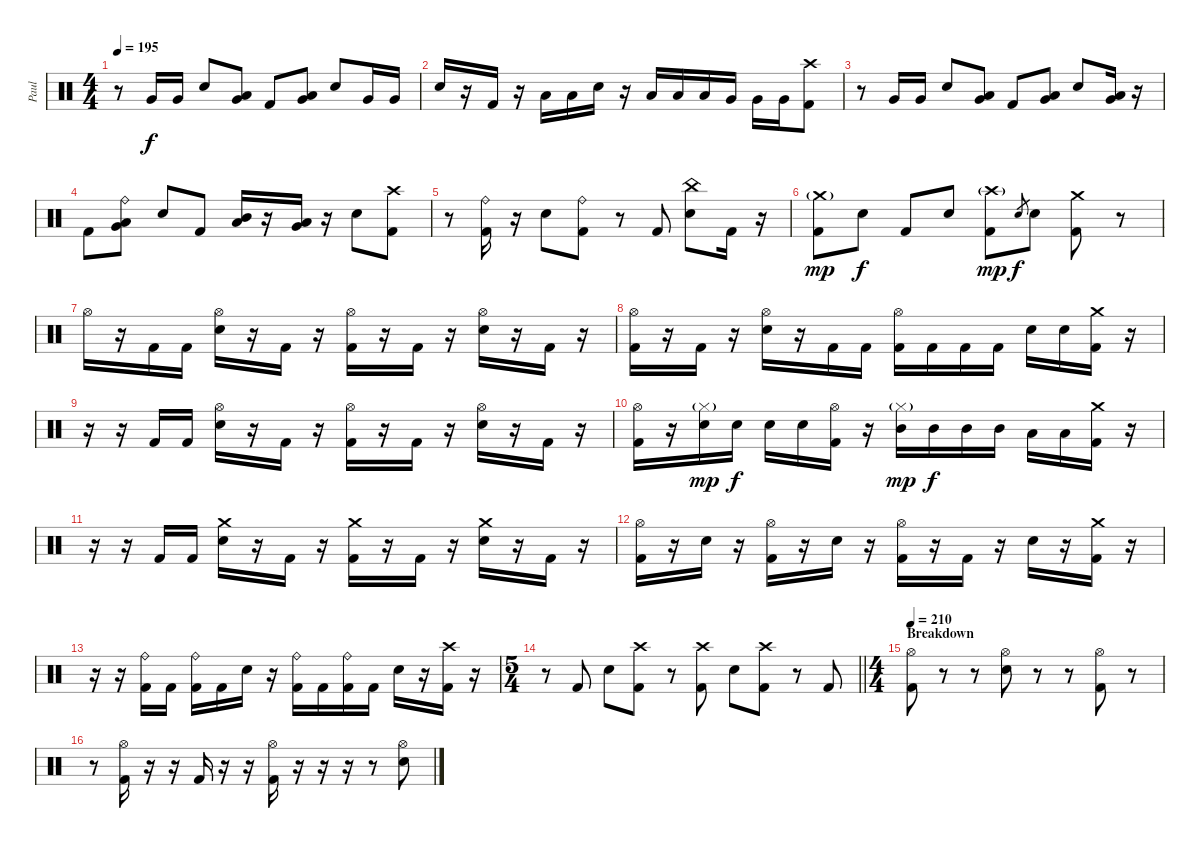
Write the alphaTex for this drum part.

\track ("Paul " "Paul ") {instrument percussion}
\staff {score}
\articulation defaults
\ts (4 4)
\tempo 195
\clef neutral
\ks c
r.8{dy f} "Very Low Tom (hit)".16 "Very Low Tom (hit)".16 "Electric Snare (hit)".8 ("Very Low Tom (hit)" "Low Tom (hit)").8 "Kick (hit) 2".8 ("Very Low Tom (hit)" "Low Floor Tom (hit)").8 "Electric Snare (hit)".8 "Very Low Tom (hit)".16 "Very Low Tom (hit)".16 |
"Electric Snare (hit)".16 r.16 "Kick (hit) 2".16 r.16 "Low Tom (hit)".16 "Low Tom (hit)".16 "Electric Snare (hit)".16 r.16 "Low Tom (hit)".16 "Low Tom (hit)".16 "Low Tom (hit)".16 "Very Low Tom (hit)".16 "Very Low Tom (hit)".16 "Very Low Tom (hit)".16 ("Crash high (hit)" "Kick (hit) 2").8 |
r.8 "Very Low Tom (hit)".16 "Very Low Tom (hit)".16 "Electric Snare (hit)".8 ("Very Low Tom (hit)" "Low Tom (hit)").8 "Kick (hit) 2".8 ("Very Low Tom (hit)" "Low Floor Tom (hit)").8 "Electric Snare (hit)".8 ("Low Tom (hit)" "Very Low Tom (hit)").16 r.16 |
"Kick (hit) 2".8 ("Ride (bell)" "Very Low Tom (hit)" "Low Floor Tom (hit)").8 "Electric Snare (hit)".8 "Kick (hit) 2".8 ("Low Tom (hit)" "Mid Tom (hit)").16 r.16 ("Very Low Tom (hit)" "Low Tom (hit)").16 r.16 "Electric Snare (hit)".8 ("Crash high (hit)" "Kick (hit) 2").8 |
r.8 ("Ride (bell)" "Kick (hit) 2").16 r.16 "Electric Snare (hit)".8 ("Ride (bell)" "Kick (hit) 2").8 r.8 "Kick (hit) 2".8 ("China (hit)" "Electric Snare (hit)").8 "Kick (hit) 2".16 r.16 |
("Crash medium (hit)"{g} "Kick (hit) 2").8{dy mp} "Electric Snare (hit)".8{dy f} "Kick (hit) 2".8 "Electric Snare (hit)".8 ("Crash high (hit)"{g} "Kick (hit) 2").8{dy mp} "Electric Snare (hit)".8{gr dy f} "Electric Snare (hit)".8 ("Crash medium (hit)" "Kick (hit) 2").8 r.8 |
"Hi-Hat (open)".16 r.16 "Kick (hit) 2".16 "Kick (hit) 2".16 ("Electric Snare (hit)" "Hi-Hat (open)").16 r.16 "Kick (hit) 2".16 r.16 ("Kick (hit) 2" "Hi-Hat (open)").16 r.16 "Kick (hit) 2".16 r.16 ("Electric Snare (hit)" "Hi-Hat (open)").16 r.16 "Kick (hit) 2".16 r.16 |
("Kick (hit) 2" "Hi-Hat (open)").16 r.16 "Kick (hit) 2".16 r.16 ("Electric Snare (hit)" "Hi-Hat (open)").16 r.16 "Kick (hit) 2".16 "Kick (hit) 2".16 ("Kick (hit) 2" "Hi-Hat (open)").16 "Kick (hit) 2".16 "Kick (hit) 2".16 "Kick (hit) 2".16 "Electric Snare (hit)".16 "Electric Snare (hit)".16 ("Kick (hit) 2" "Crash medium (hit)").16 r.16 |
r.16 r.16 "Kick (hit) 2".16 "Kick (hit) 2".16 ("Electric Snare (hit)" "Hi-Hat (open)").16 r.16 "Kick (hit) 2".16 r.16 ("Kick (hit) 2" "Hi-Hat (open)").16 r.16 "Kick (hit) 2".16 r.16 ("Electric Snare (hit)" "Hi-Hat (open)").16 r.16 "Kick (hit) 2".16 r.16 |
("Kick (hit) 2" "Hi-Hat (open)").16 r.16 ("Electric Snare (hit)" "Hi-Hat (closed)"{g}).16{dy mp} "Electric Snare (hit)".16{dy f} "Electric Snare (hit)".16 "Electric Snare (hit)".16 ("Kick (hit) 2" "Hi-Hat (open)").16 r.16 ("Mid Tom (hit)" "Hi-Hat (closed)"{g}).16{dy mp} "Mid Tom (hit)".16{dy f} "Mid Tom (hit)".16 "Mid Tom (hit)".16 "Low Tom (hit)".16 "Low Tom (hit)".16 ("Kick (hit) 2" "Crash medium (hit)").16 r.16 |
r.16 r.16 "Kick (hit) 2".16 "Kick (hit) 2".16 ("Electric Snare (hit)" "Crash medium (hit)").16 r.16 "Kick (hit) 2".16 r.16 ("Kick (hit) 2" "Crash medium (hit)").16 r.16 "Kick (hit) 2".16 r.16 ("Electric Snare (hit)" "Crash medium (hit)").16 r.16 "Kick (hit) 2".16 r.16 |
("Kick (hit) 2" "Hi-Hat (open)").16 r.16 "Electric Snare (hit)".16 r.16 ("Kick (hit) 2" "Hi-Hat (open)").16 r.16 "Electric Snare (hit)".16 r.16 ("Kick (hit) 2" "Hi-Hat (open)").16 r.16 "Kick (hit) 2".16 r.16 "Electric Snare (hit)".16 r.16 ("Kick (hit) 2" "Crash medium (hit)").16 r.16 |
r.16 r.16 ("Kick (hit) 2" "Ride (bell)").16 "Kick (hit) 2".16 ("Kick (hit) 2" "Ride (bell)").16 "Kick (hit) 2".16 "Electric Snare (hit)".16 r.16 ("Kick (hit) 2" "Ride (bell)").16 "Kick (hit) 2".16 ("Kick (hit) 2" "Ride (bell)").16 "Kick (hit) 2".16 "Electric Snare (hit)".16 r.16 ("Kick (hit) 2" "Crash high (hit)").16 r.16 |
\ts (5 4)
\barLineRight lightlight
r.8 "Kick (hit) 2".8 "Electric Snare (hit)".8 ("Kick (hit) 2" "Crash high (hit)").8 r.8 ("Kick (hit) 2" "Crash high (hit)").8 "Electric Snare (hit)".8 ("Kick (hit) 2" "Crash high (hit)").8 r.8 "Kick (hit) 2".8 |
\ts (4 4)
\section ("" "Breakdown")
\tempo 210
("Kick (hit) 2" "Hi-Hat (open)").8 r.8 r.8 ("Electric Snare (hit)" "Hi-Hat (open)").8 r.8 r.8 ("Kick (hit) 2" "Hi-Hat (open)").8 r.8 |
r.8 ("Kick (hit) 2" "Hi-Hat (open)").16 r.16 r.16 "Kick (hit) 2".16 r.16 r.16 ("Kick (hit) 2" "Hi-Hat (open)").16 r.16 r.16 r.16 r.8 ("Electric Snare (hit)" "Hi-Hat (open)").8
